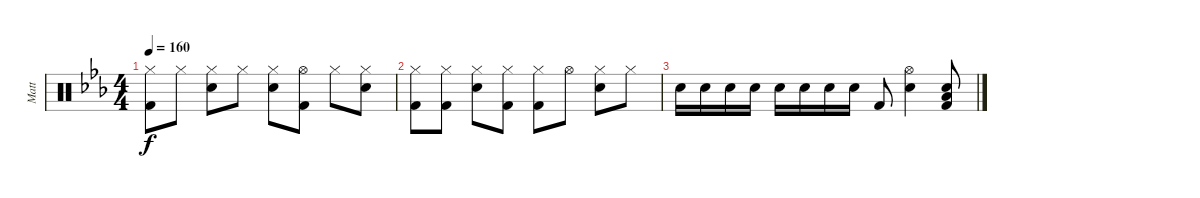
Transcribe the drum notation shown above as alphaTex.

\track ("Matt" "Matt") {instrument percussion}
\staff {score}
\articulation defaults
\ts (4 4)
\tempo 160
\clef neutral
\ks cminor
("Hi-Hat (closed)" "Kick (hit) 2").8{dy f} "Hi-Hat (closed)".8 ("Hi-Hat (closed)" "Electric Snare (hit)").8 "Hi-Hat (closed)".8 ("Hi-Hat (closed)" "Electric Snare (hit)").8 ("Hi-Hat (open)" "Kick (hit) 2").8 "Hi-Hat (closed)".8 ("Hi-Hat (closed)" "Electric Snare (hit)").8 |
("Hi-Hat (closed)" "Kick (hit) 2").8 ("Hi-Hat (closed)" "Kick (hit) 2").8 ("Hi-Hat (closed)" "Electric Snare (hit)").8 ("Hi-Hat (closed)" "Kick (hit) 2").8 ("Hi-Hat (closed)" "Kick (hit) 2").8 "Hi-Hat (open)".8 ("Hi-Hat (closed)" "Electric Snare (hit)").8 "Hi-Hat (closed)".8 |
"Electric Snare (hit)".16 "Electric Snare (hit)".16 "Electric Snare (hit)".16 "Electric Snare (hit)".16 "Electric Snare (hit)".16 "Electric Snare (hit)".16 "Electric Snare (hit)".16 "Electric Snare (hit)".16 "Kick (hit) 2".8 ("Hi-Hat (open)" "Electric Snare (hit)").4 ("Low Tom (hit)" "Electric Snare (hit)" "Kick (hit) 2").8
